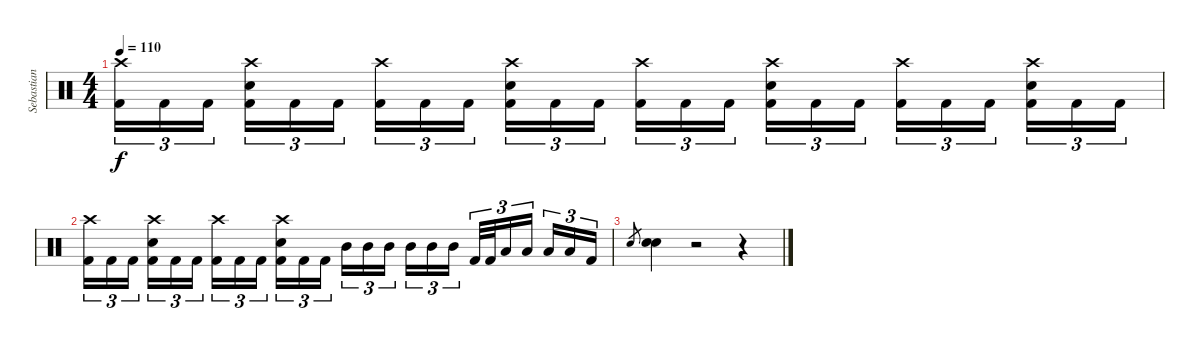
\track ("Sebastian H." "Sebastian ") {instrument percussion}
\staff {score}
\articulation defaults
\ts (4 4)
\tempo 110
\clef neutral
\ks c
("Crash high (hit)" "Kick (hit) 2").16{tu (3 2) dy f} "Kick (hit) 2".16{tu (3 2)} "Kick (hit) 2".16{tu (3 2) beam splitsecondary} ("Crash high (hit)" "Electric Snare (hit)" "Kick (hit) 2").16{tu (3 2)} "Kick (hit) 2".16{tu (3 2)} "Kick (hit) 2".16{tu (3 2)} ("Crash high (hit)" "Kick (hit) 2").16{tu (3 2)} "Kick (hit) 2".16{tu (3 2)} "Kick (hit) 2".16{tu (3 2) beam splitsecondary} ("Electric Snare (hit)" "Crash high (hit)" "Kick (hit) 2").16{tu (3 2)} "Kick (hit) 2".16{tu (3 2)} "Kick (hit) 2".16{tu (3 2)} ("Crash high (hit)" "Kick (hit) 2").16{tu (3 2)} "Kick (hit) 2".16{tu (3 2)} "Kick (hit) 2".16{tu (3 2) beam splitsecondary} ("Electric Snare (hit)" "Crash high (hit)" "Kick (hit) 2").16{tu (3 2)} "Kick (hit) 2".16{tu (3 2)} "Kick (hit) 2".16{tu (3 2)} ("Crash high (hit)" "Kick (hit) 2").16{tu (3 2)} "Kick (hit) 2".16{tu (3 2)} "Kick (hit) 2".16{tu (3 2) beam splitsecondary} ("Electric Snare (hit)" "Crash high (hit)" "Kick (hit) 2").16{tu (3 2)} "Kick (hit) 2".16{tu (3 2)} "Kick (hit) 2".16{tu (3 2)} |
("Crash high (hit)" "Kick (hit) 2").16{tu (3 2)} "Kick (hit) 2".16{tu (3 2)} "Kick (hit) 2".16{tu (3 2) beam splitsecondary} ("Crash high (hit)" "Electric Snare (hit)" "Kick (hit) 2").16{tu (3 2)} "Kick (hit) 2".16{tu (3 2)} "Kick (hit) 2".16{tu (3 2)} ("Crash high (hit)" "Kick (hit) 2").16{tu (3 2)} "Kick (hit) 2".16{tu (3 2)} "Kick (hit) 2".16{tu (3 2) beam splitsecondary} ("Electric Snare (hit)" "Crash high (hit)" "Kick (hit) 2").16{tu (3 2)} "Kick (hit) 2".16{tu (3 2)} "Kick (hit) 2".16{tu (3 2)} "Mid Tom (hit)".16{tu (3 2)} "Mid Tom (hit)".16{tu (3 2)} "Mid Tom (hit)".16{tu (3 2) beam splitsecondary} "Mid Tom (hit)".16{tu (3 2)} "Mid Tom (hit)".16{tu (3 2)} "Mid Tom (hit)".16{tu (3 2)} "Kick (hit) 2".32{tu (3 2)} "Kick (hit) 2".32{tu (3 2)} "Low Tom (hit)".16{tu (3 2)} "Low Tom (hit)".16{tu (3 2) beam splitsecondary} "Low Tom (hit)".16{tu (3 2)} "Low Tom (hit)".16{tu (3 2)} "Kick (hit) 2".16{tu (3 2)} |
"Electric Snare (hit)".8{gr} ("Electric Snare (hit)" "Electric Snare (hit)").4 r.2 r.4
